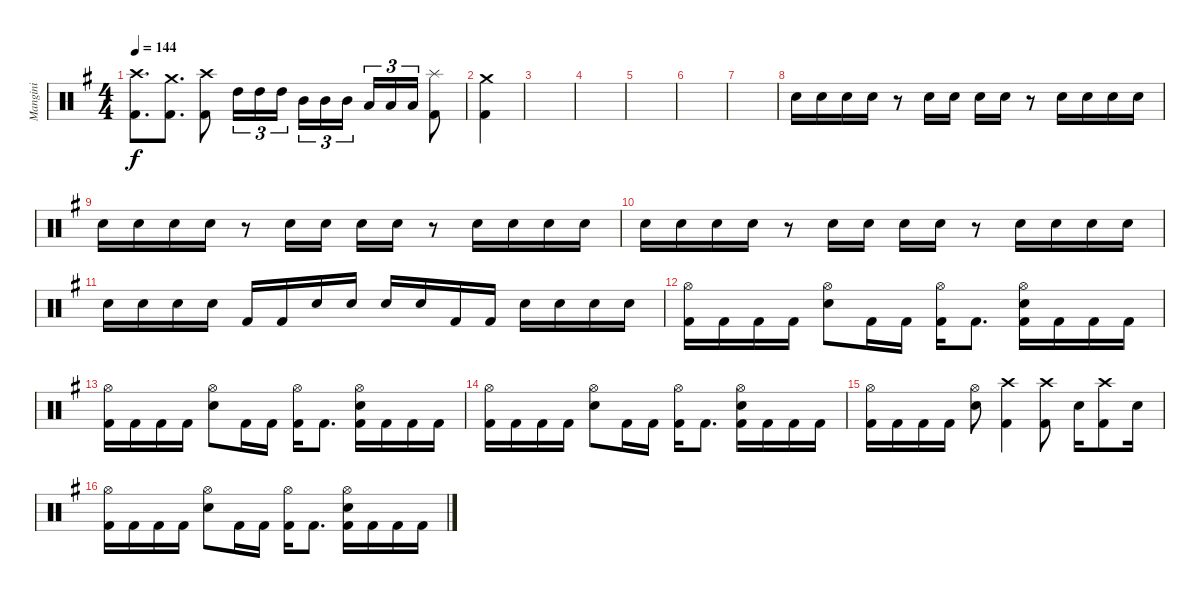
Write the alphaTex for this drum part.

\track ("Mangini" "Mangini") {instrument percussion}
\staff {score}
\articulation defaults
\ts (4 4)
\tempo 144
\clef neutral
\ks eminor
("Crash high (hit)" "Kick (hit) 2").8{d dy f} ("Crash medium (hit)" "Kick (hit) 2").8{d} ("Crash high (hit)" "Kick (hit) 2").8 "High Tom (hit)".16{tu (3 2)} "High Tom (hit)".16{tu (3 2)} "High Tom (hit)".16{tu (3 2) beam splitsecondary} "Mid Tom (hit)".16{tu (3 2)} "Mid Tom (hit)".16{tu (3 2)} "Mid Tom (hit)".16{tu (3 2)} "Low Tom (hit)".16{tu (3 2)} "Low Tom (hit)".16{tu (3 2)} "Low Tom (hit)".16{tu (3 2)} ("Splash (hit)" "Kick (hit) 2").8 |
("Crash medium (hit)" "Kick (hit) 2").4 |
|
|
|
|
|
"Snare (hit) 2".16 "Snare (hit) 2".16 "Snare (hit) 2".16 "Snare (hit) 2".16 r.8 "Snare (hit) 2".16 "Snare (hit) 2".16 "Snare (hit) 2".16 "Snare (hit) 2".16 r.8 "Snare (hit) 2".16 "Snare (hit) 2".16 "Snare (hit) 2".16 "Snare (hit) 2".16 |
"Snare (hit) 2".16 "Snare (hit) 2".16 "Snare (hit) 2".16 "Snare (hit) 2".16 r.8 "Snare (hit) 2".16 "Snare (hit) 2".16 "Snare (hit) 2".16 "Snare (hit) 2".16 r.8 "Snare (hit) 2".16 "Snare (hit) 2".16 "Snare (hit) 2".16 "Snare (hit) 2".16 |
"Snare (hit) 2".16 "Snare (hit) 2".16 "Snare (hit) 2".16 "Snare (hit) 2".16 r.8 "Snare (hit) 2".16 "Snare (hit) 2".16 "Snare (hit) 2".16 "Snare (hit) 2".16 r.8 "Snare (hit) 2".16 "Snare (hit) 2".16 "Snare (hit) 2".16 "Snare (hit) 2".16 |
"Snare (hit) 2".16 "Snare (hit) 2".16 "Snare (hit) 2".16 "Snare (hit) 2".16 "Kick (hit) 2".16 "Kick (hit) 2".16 "Snare (hit) 2".16 "Snare (hit) 2".16 "Snare (hit) 2".16 "Snare (hit) 2".16 "Kick (hit) 2".16 "Kick (hit) 2".16 "Snare (hit) 2".16 "Snare (hit) 2".16 "Snare (hit) 2".16 "Snare (hit) 2".16 |
("Hi-Hat (open)" "Kick (hit) 2").16 "Kick (hit) 2".16 "Kick (hit) 2".16 "Kick (hit) 2".16 ("Hi-Hat (open)" "Snare (hit) 2").8 "Kick (hit) 2".16 "Kick (hit) 2".16 ("Hi-Hat (open)" "Kick (hit) 2").16 "Kick (hit) 2".8{d} ("Hi-Hat (open)" "Snare (hit) 2" "Kick (hit) 2").16 "Kick (hit) 2".16 "Kick (hit) 2".16 "Kick (hit) 2".16 |
("Hi-Hat (open)" "Kick (hit) 2").16 "Kick (hit) 2".16 "Kick (hit) 2".16 "Kick (hit) 2".16 ("Hi-Hat (open)" "Snare (hit) 2").8 "Kick (hit) 2".16 "Kick (hit) 2".16 ("Hi-Hat (open)" "Kick (hit) 2").16 "Kick (hit) 2".8{d} ("Hi-Hat (open)" "Snare (hit) 2" "Kick (hit) 2").16 "Kick (hit) 2".16 "Kick (hit) 2".16 "Kick (hit) 2".16 |
("Hi-Hat (open)" "Kick (hit) 2").16 "Kick (hit) 2".16 "Kick (hit) 2".16 "Kick (hit) 2".16 ("Hi-Hat (open)" "Snare (hit) 2").8 "Kick (hit) 2".16 "Kick (hit) 2".16 ("Hi-Hat (open)" "Kick (hit) 2").16 "Kick (hit) 2".8{d} ("Hi-Hat (open)" "Snare (hit) 2" "Kick (hit) 2").16 "Kick (hit) 2".16 "Kick (hit) 2".16 "Kick (hit) 2".16 |
("Hi-Hat (open)" "Kick (hit) 2").16 "Kick (hit) 2".16 "Kick (hit) 2".16 "Kick (hit) 2".16 ("Hi-Hat (open)" "Snare (hit) 2").8 ("Crash high (hit)" "Kick (hit) 2").4 ("Crash high (hit)" "Kick (hit) 2").8 "Snare (hit) 2".16 ("Crash high (hit)" "Kick (hit) 2").8 "Snare (hit) 2".16 |
("Hi-Hat (open)" "Kick (hit) 2").16 "Kick (hit) 2".16 "Kick (hit) 2".16 "Kick (hit) 2".16 ("Hi-Hat (open)" "Snare (hit) 2").8 "Kick (hit) 2".16 "Kick (hit) 2".16 ("Hi-Hat (open)" "Kick (hit) 2").16 "Kick (hit) 2".8{d} ("Hi-Hat (open)" "Snare (hit) 2" "Kick (hit) 2").16 "Kick (hit) 2".16 "Kick (hit) 2".16 "Kick (hit) 2".16
